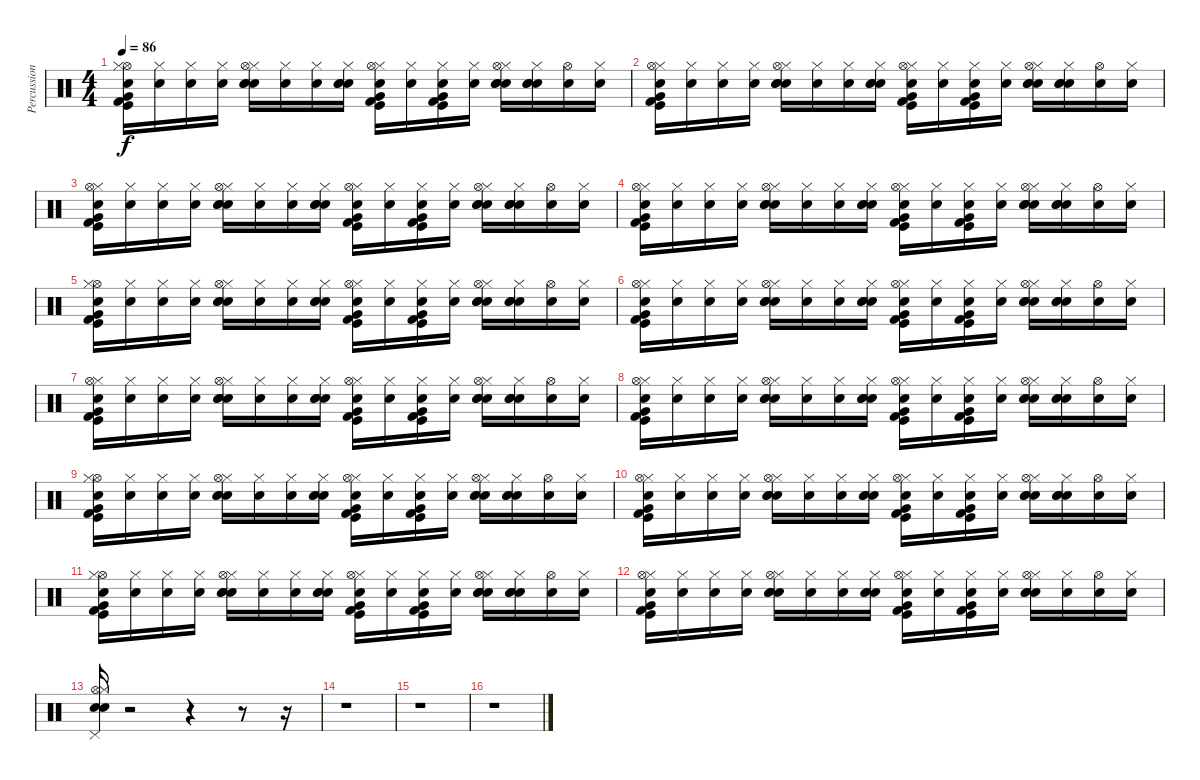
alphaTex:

\track ("Percussions (from MIDI)" "Percussion") {instrument percussion}
\staff {score}
\articulation defaults
\ts (4 4)
\tempo 86
\clef neutral
\ks c
("Snare (hit)" "Hi-Hat (open)" "Hi-Hat (closed)" "Very Low Tom (hit)" "Kick (hit) 2" "Kick (hit)").16{dy f} ("Snare (hit)" "Hi-Hat (closed)").16 ("Snare (hit)" "Hi-Hat (closed)").16 ("Snare (hit)" "Hi-Hat (closed)").16 ("Snare (hit)" "Hi-Hat (closed)" "Electric Snare (hit)" "Snare (hit) 2" "Hi-Hat (open)").16 ("Snare (hit)" "Hi-Hat (closed)").16 ("Snare (hit)" "Hi-Hat (closed)").16 ("Snare (hit)" "Hi-Hat (closed)" "Electric Snare (hit)" "Snare (hit) 2").16 ("Snare (hit)" "Hi-Hat (closed)" "Very Low Tom (hit)" "Kick (hit) 2" "Kick (hit)" "Hi-Hat (open)").16 ("Snare (hit)" "Hi-Hat (closed)").16 ("Snare (hit)" "Hi-Hat (closed)" "Very Low Tom (hit)" "Kick (hit) 2" "Kick (hit)").16 ("Snare (hit)" "Hi-Hat (closed)").16 ("Snare (hit)" "Hi-Hat (closed)" "Electric Snare (hit)" "Snare (hit) 2" "Hi-Hat (open)").16 ("Snare (hit)" "Hi-Hat (closed)" "Snare (hit) 2" "Electric Snare (hit)").16 ("Snare (hit)" "Hi-Hat (open)").16 ("Snare (hit)" "Hi-Hat (closed)").16 |
("Snare (hit)" "Kick (hit)" "Kick (hit) 2" "Very Low Tom (hit)" "Hi-Hat (closed)" "Hi-Hat (open)").16 ("Snare (hit)" "Hi-Hat (closed)").16 ("Snare (hit)" "Hi-Hat (closed)").16 ("Snare (hit)" "Hi-Hat (closed)").16 ("Snare (hit)" "Hi-Hat (closed)" "Electric Snare (hit)" "Snare (hit) 2" "Hi-Hat (open)").16 ("Snare (hit)" "Hi-Hat (closed)").16 ("Snare (hit)" "Hi-Hat (closed)").16 ("Snare (hit)" "Hi-Hat (closed)" "Electric Snare (hit)" "Snare (hit) 2").16 ("Snare (hit)" "Hi-Hat (closed)" "Very Low Tom (hit)" "Kick (hit) 2" "Kick (hit)" "Hi-Hat (open)").16 ("Snare (hit)" "Hi-Hat (closed)").16 ("Snare (hit)" "Hi-Hat (closed)" "Very Low Tom (hit)" "Kick (hit) 2" "Kick (hit)").16 ("Snare (hit)" "Hi-Hat (closed)").16 ("Snare (hit)" "Hi-Hat (closed)" "Electric Snare (hit)" "Snare (hit) 2" "Hi-Hat (open)").16 ("Snare (hit)" "Hi-Hat (closed)" "Snare (hit) 2" "Electric Snare (hit)").16 ("Snare (hit)" "Hi-Hat (open)").16 ("Snare (hit)" "Hi-Hat (closed)").16 |
("Snare (hit)" "Kick (hit)" "Kick (hit) 2" "Very Low Tom (hit)" "Hi-Hat (closed)" "Hi-Hat (open)").16 ("Snare (hit)" "Hi-Hat (closed)").16 ("Snare (hit)" "Hi-Hat (closed)").16 ("Snare (hit)" "Hi-Hat (closed)").16 ("Snare (hit)" "Hi-Hat (closed)" "Electric Snare (hit)" "Snare (hit) 2" "Hi-Hat (open)").16 ("Snare (hit)" "Hi-Hat (closed)").16 ("Snare (hit)" "Hi-Hat (closed)").16 ("Snare (hit)" "Hi-Hat (closed)" "Electric Snare (hit)" "Snare (hit) 2").16 ("Snare (hit)" "Hi-Hat (closed)" "Very Low Tom (hit)" "Kick (hit) 2" "Kick (hit)" "Hi-Hat (open)").16 ("Snare (hit)" "Hi-Hat (closed)").16 ("Snare (hit)" "Hi-Hat (closed)" "Very Low Tom (hit)" "Kick (hit) 2" "Kick (hit)").16 ("Snare (hit)" "Hi-Hat (closed)").16 ("Snare (hit)" "Hi-Hat (closed)" "Electric Snare (hit)" "Snare (hit) 2" "Hi-Hat (open)").16 ("Snare (hit)" "Hi-Hat (closed)" "Snare (hit) 2" "Electric Snare (hit)").16 ("Snare (hit)" "Hi-Hat (open)").16 ("Snare (hit)" "Hi-Hat (closed)").16 |
("Snare (hit)" "Kick (hit)" "Kick (hit) 2" "Very Low Tom (hit)" "Hi-Hat (closed)" "Hi-Hat (open)").16 ("Snare (hit)" "Hi-Hat (closed)").16 ("Snare (hit)" "Hi-Hat (closed)").16 ("Snare (hit)" "Hi-Hat (closed)").16 ("Snare (hit)" "Hi-Hat (closed)" "Electric Snare (hit)" "Snare (hit) 2" "Hi-Hat (open)").16 ("Snare (hit)" "Hi-Hat (closed)").16 ("Snare (hit)" "Hi-Hat (closed)").16 ("Snare (hit)" "Hi-Hat (closed)" "Electric Snare (hit)" "Snare (hit) 2").16 ("Snare (hit)" "Hi-Hat (closed)" "Very Low Tom (hit)" "Kick (hit) 2" "Kick (hit)" "Hi-Hat (open)").16 ("Snare (hit)" "Hi-Hat (closed)").16 ("Snare (hit)" "Hi-Hat (closed)" "Very Low Tom (hit)" "Kick (hit) 2" "Kick (hit)").16 ("Snare (hit)" "Hi-Hat (closed)").16 ("Snare (hit)" "Hi-Hat (closed)" "Electric Snare (hit)" "Snare (hit) 2" "Hi-Hat (open)").16 ("Snare (hit)" "Hi-Hat (closed)" "Snare (hit) 2" "Electric Snare (hit)").16 ("Snare (hit)" "Hi-Hat (open)").16 ("Snare (hit)" "Hi-Hat (closed)").16 |
("Snare (hit)" "Hi-Hat (open)" "Hi-Hat (closed)" "Very Low Tom (hit)" "Kick (hit) 2" "Kick (hit)").16 ("Snare (hit)" "Hi-Hat (closed)").16 ("Snare (hit)" "Hi-Hat (closed)").16 ("Snare (hit)" "Hi-Hat (closed)").16 ("Snare (hit)" "Hi-Hat (closed)" "Electric Snare (hit)" "Snare (hit) 2" "Hi-Hat (open)").16 ("Snare (hit)" "Hi-Hat (closed)").16 ("Snare (hit)" "Hi-Hat (closed)").16 ("Snare (hit)" "Hi-Hat (closed)" "Electric Snare (hit)" "Snare (hit) 2").16 ("Snare (hit)" "Hi-Hat (closed)" "Very Low Tom (hit)" "Kick (hit) 2" "Kick (hit)" "Hi-Hat (open)").16 ("Snare (hit)" "Hi-Hat (closed)").16 ("Snare (hit)" "Hi-Hat (closed)" "Very Low Tom (hit)" "Kick (hit) 2" "Kick (hit)").16 ("Snare (hit)" "Hi-Hat (closed)").16 ("Snare (hit)" "Hi-Hat (closed)" "Electric Snare (hit)" "Snare (hit) 2" "Hi-Hat (open)").16 ("Snare (hit)" "Hi-Hat (closed)" "Snare (hit) 2" "Electric Snare (hit)").16 ("Snare (hit)" "Hi-Hat (open)").16 ("Snare (hit)" "Hi-Hat (closed)").16 |
("Snare (hit)" "Kick (hit)" "Kick (hit) 2" "Very Low Tom (hit)" "Hi-Hat (closed)" "Hi-Hat (open)").16 ("Snare (hit)" "Hi-Hat (closed)").16 ("Snare (hit)" "Hi-Hat (closed)").16 ("Snare (hit)" "Hi-Hat (closed)").16 ("Snare (hit)" "Hi-Hat (closed)" "Electric Snare (hit)" "Snare (hit) 2" "Hi-Hat (open)").16 ("Snare (hit)" "Hi-Hat (closed)").16 ("Snare (hit)" "Hi-Hat (closed)").16 ("Snare (hit)" "Hi-Hat (closed)" "Electric Snare (hit)" "Snare (hit) 2").16 ("Snare (hit)" "Hi-Hat (closed)" "Very Low Tom (hit)" "Kick (hit) 2" "Kick (hit)" "Hi-Hat (open)").16 ("Snare (hit)" "Hi-Hat (closed)").16 ("Snare (hit)" "Hi-Hat (closed)" "Very Low Tom (hit)" "Kick (hit) 2" "Kick (hit)").16 ("Snare (hit)" "Hi-Hat (closed)").16 ("Snare (hit)" "Hi-Hat (closed)" "Electric Snare (hit)" "Snare (hit) 2" "Hi-Hat (open)").16 ("Snare (hit)" "Hi-Hat (closed)" "Snare (hit) 2" "Electric Snare (hit)").16 ("Snare (hit)" "Hi-Hat (open)").16 ("Snare (hit)" "Hi-Hat (closed)").16 |
("Snare (hit)" "Kick (hit)" "Kick (hit) 2" "Very Low Tom (hit)" "Hi-Hat (closed)" "Hi-Hat (open)").16 ("Snare (hit)" "Hi-Hat (closed)").16 ("Snare (hit)" "Hi-Hat (closed)").16 ("Snare (hit)" "Hi-Hat (closed)").16 ("Snare (hit)" "Hi-Hat (closed)" "Electric Snare (hit)" "Snare (hit) 2" "Hi-Hat (open)").16 ("Snare (hit)" "Hi-Hat (closed)").16 ("Snare (hit)" "Hi-Hat (closed)").16 ("Snare (hit)" "Hi-Hat (closed)" "Electric Snare (hit)" "Snare (hit) 2").16 ("Snare (hit)" "Hi-Hat (closed)" "Very Low Tom (hit)" "Kick (hit) 2" "Kick (hit)" "Hi-Hat (open)").16 ("Snare (hit)" "Hi-Hat (closed)").16 ("Snare (hit)" "Hi-Hat (closed)" "Very Low Tom (hit)" "Kick (hit) 2" "Kick (hit)").16 ("Snare (hit)" "Hi-Hat (closed)").16 ("Snare (hit)" "Hi-Hat (closed)" "Electric Snare (hit)" "Snare (hit) 2" "Hi-Hat (open)").16 ("Snare (hit)" "Hi-Hat (closed)" "Snare (hit) 2" "Electric Snare (hit)").16 ("Snare (hit)" "Hi-Hat (open)").16 ("Snare (hit)" "Hi-Hat (closed)").16 |
("Snare (hit)" "Kick (hit)" "Kick (hit) 2" "Very Low Tom (hit)" "Hi-Hat (closed)" "Hi-Hat (open)").16 ("Snare (hit)" "Hi-Hat (closed)").16 ("Snare (hit)" "Hi-Hat (closed)").16 ("Snare (hit)" "Hi-Hat (closed)").16 ("Snare (hit)" "Hi-Hat (closed)" "Electric Snare (hit)" "Snare (hit) 2" "Hi-Hat (open)").16 ("Snare (hit)" "Hi-Hat (closed)").16 ("Snare (hit)" "Hi-Hat (closed)").16 ("Snare (hit)" "Hi-Hat (closed)" "Electric Snare (hit)" "Snare (hit) 2").16 ("Snare (hit)" "Hi-Hat (closed)" "Very Low Tom (hit)" "Kick (hit) 2" "Kick (hit)" "Hi-Hat (open)").16 ("Snare (hit)" "Hi-Hat (closed)").16 ("Snare (hit)" "Hi-Hat (closed)" "Very Low Tom (hit)" "Kick (hit) 2" "Kick (hit)").16 ("Snare (hit)" "Hi-Hat (closed)").16 ("Snare (hit)" "Hi-Hat (closed)" "Electric Snare (hit)" "Snare (hit) 2" "Hi-Hat (open)").16 ("Snare (hit)" "Hi-Hat (closed)" "Snare (hit) 2" "Electric Snare (hit)").16 ("Snare (hit)" "Hi-Hat (open)").16 ("Snare (hit)" "Hi-Hat (closed)").16 |
("Snare (hit)" "Hi-Hat (open)" "Hi-Hat (closed)" "Very Low Tom (hit)" "Kick (hit) 2" "Kick (hit)").16 ("Snare (hit)" "Hi-Hat (closed)").16 ("Snare (hit)" "Hi-Hat (closed)").16 ("Snare (hit)" "Hi-Hat (closed)").16 ("Snare (hit)" "Hi-Hat (closed)" "Electric Snare (hit)" "Snare (hit) 2" "Hi-Hat (open)").16 ("Snare (hit)" "Hi-Hat (closed)").16 ("Snare (hit)" "Hi-Hat (closed)").16 ("Snare (hit)" "Hi-Hat (closed)" "Electric Snare (hit)" "Snare (hit) 2").16 ("Snare (hit)" "Hi-Hat (closed)" "Very Low Tom (hit)" "Kick (hit) 2" "Kick (hit)" "Hi-Hat (open)").16 ("Snare (hit)" "Hi-Hat (closed)").16 ("Snare (hit)" "Hi-Hat (closed)" "Very Low Tom (hit)" "Kick (hit) 2" "Kick (hit)").16 ("Snare (hit)" "Hi-Hat (closed)").16 ("Snare (hit)" "Hi-Hat (closed)" "Electric Snare (hit)" "Snare (hit) 2" "Hi-Hat (open)").16 ("Snare (hit)" "Hi-Hat (closed)" "Snare (hit) 2" "Electric Snare (hit)").16 ("Snare (hit)" "Hi-Hat (open)").16 ("Snare (hit)" "Hi-Hat (closed)").16 |
("Snare (hit)" "Kick (hit)" "Kick (hit) 2" "Very Low Tom (hit)" "Hi-Hat (closed)" "Hi-Hat (open)").16 ("Snare (hit)" "Hi-Hat (closed)").16 ("Snare (hit)" "Hi-Hat (closed)").16 ("Snare (hit)" "Hi-Hat (closed)").16 ("Snare (hit)" "Hi-Hat (closed)" "Electric Snare (hit)" "Snare (hit) 2" "Hi-Hat (open)").16 ("Snare (hit)" "Hi-Hat (closed)").16 ("Snare (hit)" "Hi-Hat (closed)").16 ("Snare (hit)" "Hi-Hat (closed)" "Electric Snare (hit)" "Snare (hit) 2").16 ("Snare (hit)" "Hi-Hat (closed)" "Very Low Tom (hit)" "Kick (hit) 2" "Kick (hit)" "Hi-Hat (open)").16 ("Snare (hit)" "Hi-Hat (closed)").16 ("Snare (hit)" "Hi-Hat (closed)" "Very Low Tom (hit)" "Kick (hit) 2" "Kick (hit)").16 ("Snare (hit)" "Hi-Hat (closed)").16 ("Snare (hit)" "Hi-Hat (closed)" "Electric Snare (hit)" "Snare (hit) 2" "Hi-Hat (open)").16 ("Snare (hit)" "Hi-Hat (closed)" "Snare (hit) 2" "Electric Snare (hit)").16 ("Snare (hit)" "Hi-Hat (open)").16 ("Snare (hit)" "Hi-Hat (closed)").16 |
("Snare (hit)" "Hi-Hat (open)" "Hi-Hat (closed)" "Very Low Tom (hit)" "Kick (hit) 2" "Kick (hit)").16 ("Snare (hit)" "Hi-Hat (closed)").16 ("Snare (hit)" "Hi-Hat (closed)").16 ("Snare (hit)" "Hi-Hat (closed)").16 ("Snare (hit)" "Hi-Hat (closed)" "Electric Snare (hit)" "Snare (hit) 2" "Hi-Hat (open)").16 ("Snare (hit)" "Hi-Hat (closed)").16 ("Snare (hit)" "Hi-Hat (closed)").16 ("Snare (hit)" "Hi-Hat (closed)" "Electric Snare (hit)" "Snare (hit) 2").16 ("Snare (hit)" "Hi-Hat (closed)" "Very Low Tom (hit)" "Kick (hit) 2" "Kick (hit)" "Hi-Hat (open)").16 ("Snare (hit)" "Hi-Hat (closed)").16 ("Snare (hit)" "Hi-Hat (closed)" "Very Low Tom (hit)" "Kick (hit) 2" "Kick (hit)").16 ("Snare (hit)" "Hi-Hat (closed)").16 ("Snare (hit)" "Hi-Hat (closed)" "Electric Snare (hit)" "Snare (hit) 2" "Hi-Hat (open)").16 ("Snare (hit)" "Hi-Hat (closed)" "Snare (hit) 2" "Electric Snare (hit)").16 ("Snare (hit)" "Hi-Hat (open)").16 ("Snare (hit)" "Hi-Hat (closed)").16 |
("Snare (hit)" "Kick (hit)" "Kick (hit) 2" "Very Low Tom (hit)" "Hi-Hat (closed)" "Hi-Hat (open)").16 ("Snare (hit)" "Hi-Hat (closed)").16 ("Snare (hit)" "Hi-Hat (closed)").16 ("Snare (hit)" "Hi-Hat (closed)").16 ("Snare (hit)" "Hi-Hat (closed)" "Electric Snare (hit)" "Snare (hit) 2" "Hi-Hat (open)").16 ("Snare (hit)" "Hi-Hat (closed)").16 ("Snare (hit)" "Hi-Hat (closed)").16 ("Snare (hit)" "Hi-Hat (closed)" "Electric Snare (hit)" "Snare (hit) 2").16 ("Snare (hit)" "Hi-Hat (closed)" "Very Low Tom (hit)" "Kick (hit) 2" "Kick (hit)" "Hi-Hat (open)").16 ("Snare (hit)" "Hi-Hat (closed)").16 ("Snare (hit)" "Hi-Hat (closed)" "Very Low Tom (hit)" "Kick (hit) 2" "Kick (hit)").16 ("Snare (hit)" "Hi-Hat (closed)").16 ("Snare (hit)" "Hi-Hat (closed)" "Electric Snare (hit)" "Snare (hit) 2" "Hi-Hat (open)").16 ("Snare (hit)" "Hi-Hat (closed)").16 ("Snare (hit)" "Hi-Hat (open)").16 ("Snare (hit)" "Hi-Hat (closed)").16 |
("Snare (hit)" "Hi-Hat (open)" "Hi-Hat (closed)" "Snare (hit) 2" "Pedal Hi-Hat (hit)").16 r.2 r.4 r.8 r.16 |
r.1 |
r.1 |
r.1
